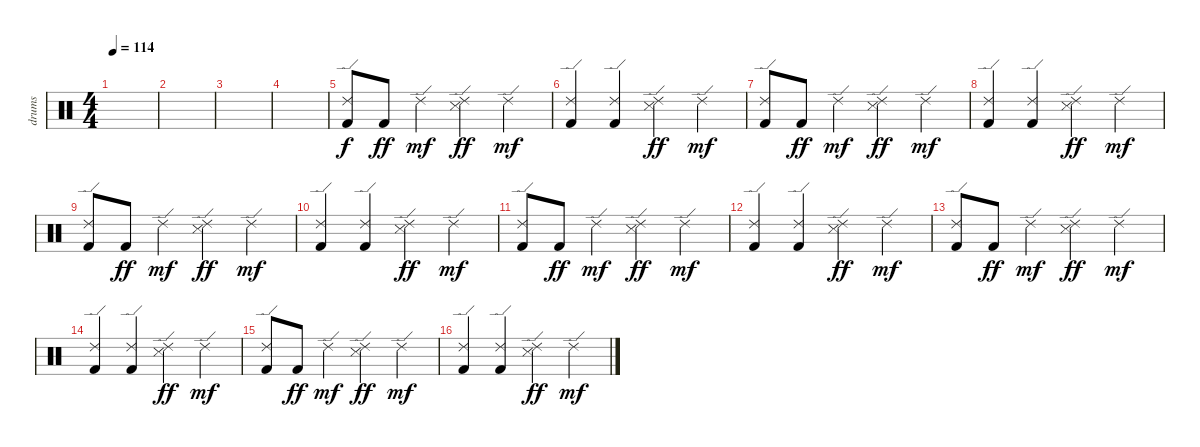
\track ("drums" "drums") {instrument percussion}
\staff {score}
\articulation defaults
\ts (4 4)
\tempo 114
\clef neutral
\ks c
|
|
|
|
("Kick (hit) 2" "Ride (edge) 2").8 "Kick (hit) 2".8{dy ff} "Ride (edge) 2".4{dy mf} ("Ride (edge) 2" "Snare (side stick) 3").4{dy ff} "Ride (edge) 2".4{dy mf} |
("Kick (hit) 2" "Ride (edge) 2").4 ("Kick (hit) 2" "Ride (edge) 2").4 ("Ride (edge) 2" "Snare (side stick) 3").4{dy ff} "Ride (edge) 2".4{dy mf} |
("Kick (hit) 2" "Ride (edge) 2").8 "Kick (hit) 2".8{dy ff} "Ride (edge) 2".4{dy mf} ("Ride (edge) 2" "Snare (side stick) 3").4{dy ff} "Ride (edge) 2".4{dy mf} |
("Kick (hit) 2" "Ride (edge) 2").4 ("Kick (hit) 2" "Ride (edge) 2").4 ("Ride (edge) 2" "Snare (side stick) 3").4{dy ff} "Ride (edge) 2".4{dy mf} |
("Kick (hit) 2" "Ride (edge) 2").8 "Kick (hit) 2".8{dy ff} "Ride (edge) 2".4{dy mf} ("Ride (edge) 2" "Snare (side stick) 3").4{dy ff} "Ride (edge) 2".4{dy mf} |
("Kick (hit) 2" "Ride (edge) 2").4 ("Kick (hit) 2" "Ride (edge) 2").4 ("Ride (edge) 2" "Snare (side stick) 3").4{dy ff} "Ride (edge) 2".4{dy mf} |
("Kick (hit) 2" "Ride (edge) 2").8 "Kick (hit) 2".8{dy ff} "Ride (edge) 2".4{dy mf} ("Ride (edge) 2" "Snare (side stick) 3").4{dy ff} "Ride (edge) 2".4{dy mf} |
("Kick (hit) 2" "Ride (edge) 2").4 ("Kick (hit) 2" "Ride (edge) 2").4 ("Ride (edge) 2" "Snare (side stick) 3").4{dy ff} "Ride (edge) 2".4{dy mf} |
("Kick (hit) 2" "Ride (edge) 2").8 "Kick (hit) 2".8{dy ff} "Ride (edge) 2".4{dy mf} ("Ride (edge) 2" "Snare (side stick) 3").4{dy ff} "Ride (edge) 2".4{dy mf} |
("Kick (hit) 2" "Ride (edge) 2").4 ("Kick (hit) 2" "Ride (edge) 2").4 ("Ride (edge) 2" "Snare (side stick) 3").4{dy ff} "Ride (edge) 2".4{dy mf} |
("Kick (hit) 2" "Ride (edge) 2").8 "Kick (hit) 2".8{dy ff} "Ride (edge) 2".4{dy mf} ("Ride (edge) 2" "Snare (side stick) 3").4{dy ff} "Ride (edge) 2".4{dy mf} |
("Kick (hit) 2" "Ride (edge) 2").4 ("Kick (hit) 2" "Ride (edge) 2").4 ("Ride (edge) 2" "Snare (side stick) 3").4{dy ff} "Ride (edge) 2".4{dy mf}
